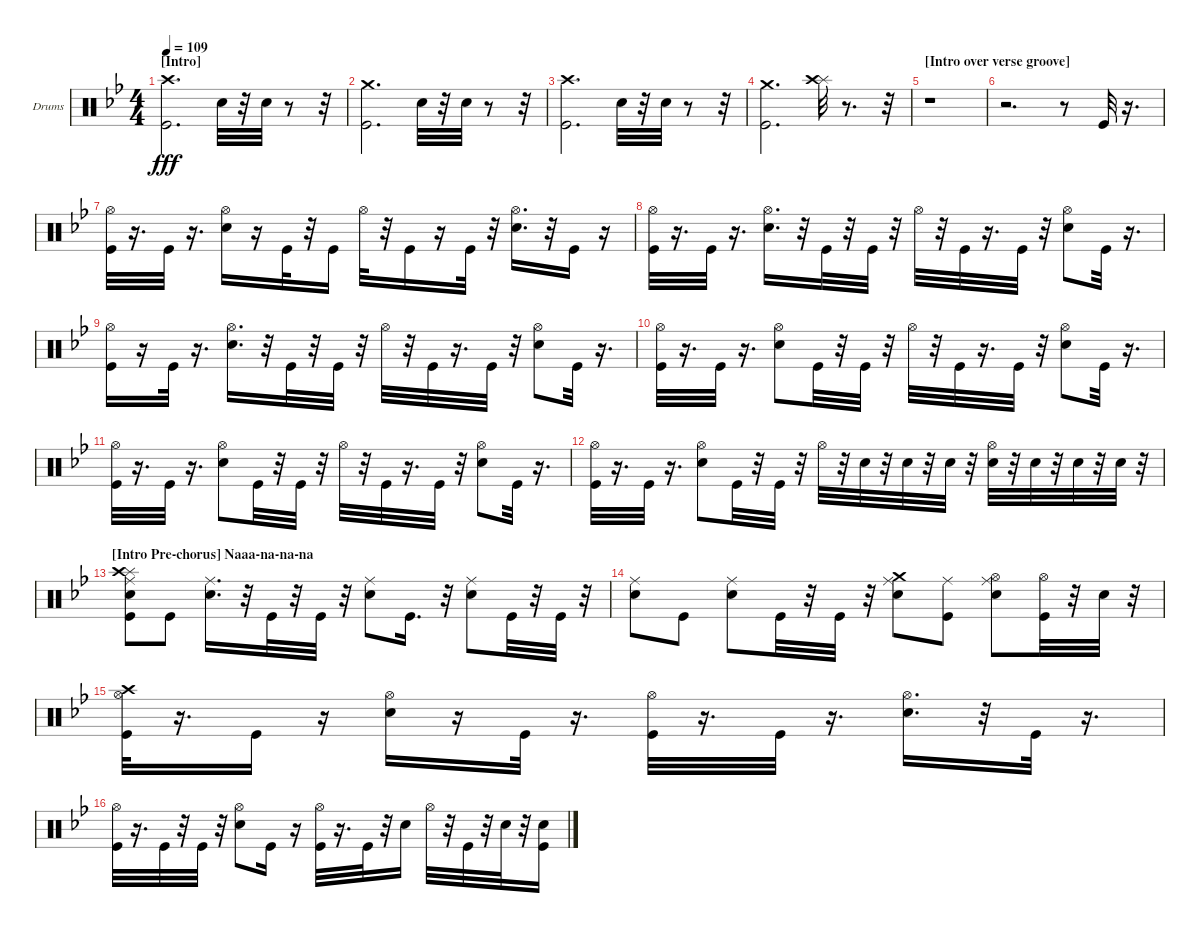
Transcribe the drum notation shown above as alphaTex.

\bracketExtendMode groupsimilarinstruments
\firstSystemTrackNameOrientation horizontal
\otherSystemsTrackNameOrientation horizontal
\track ("Drumkit" "Drums") {instrument percussion}
\staff {score}
\articulation defaults
\ts (4 4)
\beaming (8 2 2 2 2)
\section ("" "[Intro]")
\tempo 109
\clef neutral
\ks gminor
("Kick (hit)" "Crash high (hit)").2{d dy fff} "Snare (hit) 2".32 r.32 "Snare (hit) 2".32 r.8 r.32 |
("Kick (hit)" "Crash medium (hit)").2{d} "Snare (hit) 2".32 r.32 "Snare (hit) 2".32 r.8 r.32 |
("Kick (hit)" "Crash high (hit)").2{d} "Snare (hit) 2".32 r.32 "Snare (hit) 2".32 r.8 r.32 |
("Kick (hit)" "Crash medium (hit)").2{d} ("Splash (hit)" "Crash high (hit)").32 r.8{d} r.32 |
\section ("" "[Intro over verse groove]")
r.1 |
r.2{d} r.8 "Kick (hit)".32 r.16{d} |
("Kick (hit)" "Hi-Hat (open)").32 r.16{d} "Kick (hit)".32 r.16{d} ("Snare (hit) 2" "Hi-Hat (open)").16 r.16 "Kick (hit)".32 r.32 "Kick (hit)".16 "Hi-Hat (open)".32 r.32 "Kick (hit)".16 r.16 "Kick (hit)".32 r.32 ("Snare (hit) 2" "Hi-Hat (open)").16{d} r.32 "Kick (hit)".16 r.16 |
("Kick (hit)" "Hi-Hat (open)").32 r.16{d} "Kick (hit)".32 r.16{d} ("Snare (hit) 2" "Hi-Hat (open)").16{d} r.32 "Kick (hit)".32 r.32 "Kick (hit)".32 r.32 "Hi-Hat (open)".32 r.32 "Kick (hit)".32 r.16{d} "Kick (hit)".32 r.32 ("Snare (hit) 2" "Hi-Hat (open)").8 "Kick (hit)".32 r.16{d} |
("Kick (hit)" "Hi-Hat (open)").16 r.16 "Kick (hit)".32 r.16{d} ("Snare (hit) 2" "Hi-Hat (open)").16{d} r.32 "Kick (hit)".32 r.32 "Kick (hit)".32 r.32 "Hi-Hat (open)".32 r.32 "Kick (hit)".32 r.16{d} "Kick (hit)".32 r.32 ("Snare (hit) 2" "Hi-Hat (open)").8 "Kick (hit)".32 r.16{d} |
("Kick (hit)" "Hi-Hat (open)").32 r.16{d} "Kick (hit)".32 r.16{d} ("Snare (hit) 2" "Hi-Hat (open)").8 "Kick (hit)".32 r.32 "Kick (hit)".32 r.32 "Hi-Hat (open)".32 r.32 "Kick (hit)".32 r.16{d} "Kick (hit)".32 r.32 ("Snare (hit) 2" "Hi-Hat (open)").8 "Kick (hit)".32 r.16{d} |
("Kick (hit)" "Hi-Hat (open)").32 r.16{d} "Kick (hit)".32 r.16{d} ("Snare (hit) 2" "Hi-Hat (open)").8 "Kick (hit)".32 r.32 "Kick (hit)".32 r.32 "Hi-Hat (open)".32 r.32 "Kick (hit)".32 r.16{d} "Kick (hit)".32 r.32 ("Snare (hit) 2" "Hi-Hat (open)").8 "Kick (hit)".32 r.16{d} |
("Kick (hit)" "Hi-Hat (open)").32 r.16{d} "Kick (hit)".32 r.16{d} ("Snare (hit) 2" "Hi-Hat (open)").8 "Kick (hit)".32 r.32 "Kick (hit)".32 r.32 "Hi-Hat (open)".32 r.32 "Snare (hit) 2".32 r.32 "Snare (hit) 2".32 r.32 "Snare (hit) 2".32 r.32 ("Snare (hit) 2" "Hi-Hat (open)").32 r.32 "Snare (hit) 2".32 r.32 "Snare (hit) 2".32 r.32 "Snare (hit) 2".32 r.32 |
\section ("" "[Intro Pre-chorus] Naaa-na-na-na")
("Kick (hit)" "Snare (hit) 2" "Ride (middle)" "Splash (hit)" "Crash high (hit)").8 "Kick (hit)".8 ("Snare (hit) 2" "Ride (middle)").16{d} r.32 "Kick (hit)".32 r.32 "Kick (hit)".32 r.32 ("Snare (hit) 2" "Ride (middle)").8 "Kick (hit)".16{d} r.32 ("Snare (hit) 2" "Ride (middle)").8 "Kick (hit)".32 r.32 "Kick (hit)".32 r.32 |
("Snare (hit) 2" "Ride (middle)").8 "Kick (hit)".8 ("Snare (hit) 2" "Ride (middle)").8 "Kick (hit)".32 r.32 "Kick (hit)".32 r.32 ("Snare (hit) 2" "Crash medium (hit)" "Ride (middle)").8 ("Kick (hit)" "Ride (middle)").8 ("Snare (hit) 2" "Hi-Hat (open)" "Ride (middle)").8 ("Kick (hit)" "Hi-Hat (open)").32 r.32 "Snare (hit) 2".32 r.32 |
("Kick (hit)" "Hi-Hat (open)" "Crash high (hit)").32 r.16{d} "Kick (hit)".16 r.16 ("Snare (hit) 2" "Hi-Hat (open)").16 r.16 "Kick (hit)".32 r.16{d} ("Kick (hit)" "Hi-Hat (open)").32 r.16{d} "Kick (hit)".32 r.16{d} ("Snare (hit) 2" "Hi-Hat (open)").16{d} r.32 "Kick (hit)".32 r.16{d} |
("Kick (hit)" "Hi-Hat (open)").32 r.16{d} "Kick (hit)".32 r.32 "Kick (hit)".32 r.32 ("Snare (hit) 2" "Hi-Hat (open)").8 "Kick (hit)".16 r.16 ("Kick (hit)" "Hi-Hat (open)").32 r.16{d} "Kick (hit)".32 r.32 "Snare (hit) 2".16 "Hi-Hat (open)".32 r.32 "Kick (hit)".32 r.32 "Snare (hit) 2".32 r.32 ("Kick (hit)" "Snare (hit) 2").16
